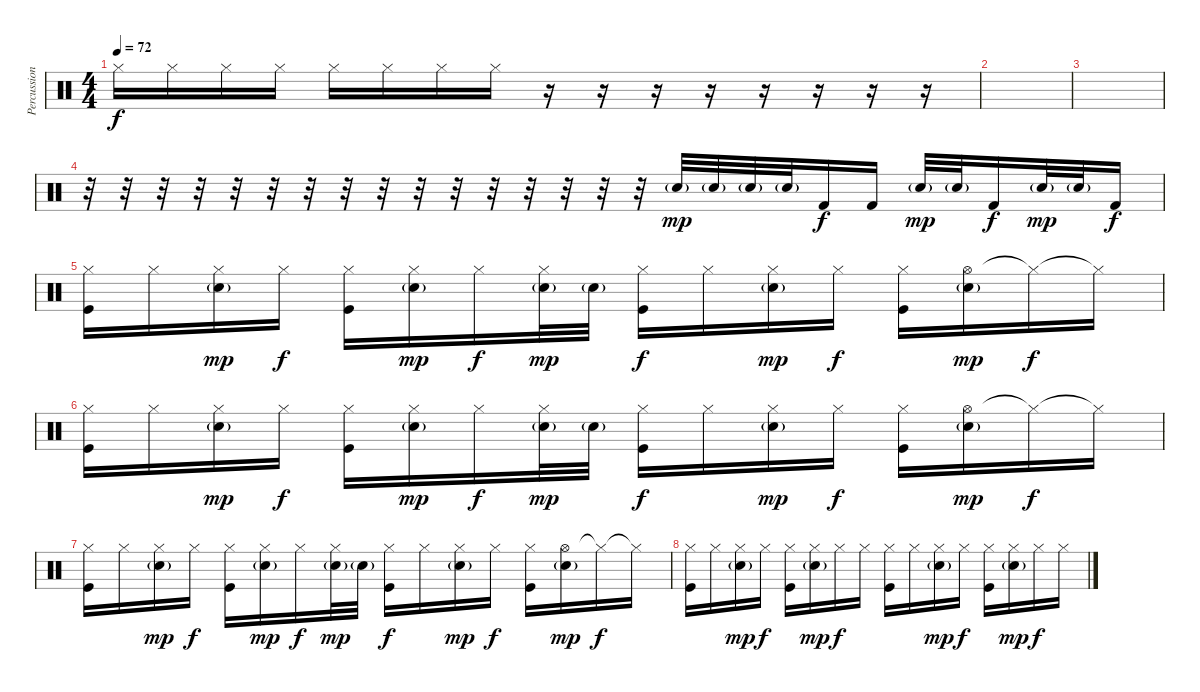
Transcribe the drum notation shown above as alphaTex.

\track ("Percussion" "Percussion") {instrument percussion}
\staff {score}
\articulation defaults
\ts (4 4)
\section ("" "")
\tempo 72
\clef neutral
\ks c "Hi-Hat (closed)".16{dy f volume 0} "Hi-Hat (closed)".16 "Hi-Hat (closed)".16 "Hi-Hat (closed)".16 "Hi-Hat (closed)".16 "Hi-Hat (closed)".16 "Hi-Hat (closed)".16 "Hi-Hat (closed)".16
r.16 r.16 r.16 r.16 r.16 r.16 r.16 r.16 |
|
|
r.32 r.32 r.32 r.32 r.32 r.32 r.32 r.32 r.32 r.32 r.32 r.32 r.32 r.32 r.32 r.32 "Snare (hit) 2"{g}.32{dy mp} "Snare (hit) 2"{g}.32 "Snare (hit) 2"{g}.32 "Snare (hit) 2"{g}.32 "Kick (hit) 2".16{dy f} "Kick (hit) 2".16 "Snare (hit) 2"{g}.32{dy mp} "Snare (hit) 2"{g}.32 "Kick (hit) 2".16{dy f} "Snare (hit) 2"{g}.32{dy mp} "Snare (hit) 2"{g}.32 "Kick (hit) 2".16{dy f} |
("Hi-Hat (closed)" "Kick (hit)").16 "Hi-Hat (closed)".16 ("Hi-Hat (closed)" "Electric Snare (hit)"{g}).16{dy mp} "Hi-Hat (closed)".16{dy f} ("Hi-Hat (closed)" "Kick (hit)").16 ("Hi-Hat (closed)" "Electric Snare (hit)"{g}).16{dy mp} "Hi-Hat (closed)".16{dy f} ("Hi-Hat (closed)" "Electric Snare (hit)"{g}).32{dy mp} "Electric Snare (hit)"{g}.32 ("Hi-Hat (closed)" "Kick (hit)").16{dy f} "Hi-Hat (closed)".16 ("Hi-Hat (closed)" "Electric Snare (hit)"{g}).16{dy mp} "Hi-Hat (closed)".16{dy f} ("Hi-Hat (closed)" "Kick (hit)").16 ("Hi-Hat (open)" "Electric Snare (hit)"{g}).16{dy mp} "Hi-Hat (closed)"{t}.16{dy f} "Hi-Hat (closed)"{t}.16 |
("Hi-Hat (closed)" "Kick (hit)").16 "Hi-Hat (closed)".16 ("Hi-Hat (closed)" "Electric Snare (hit)"{g}).16{dy mp} "Hi-Hat (closed)".16{dy f} ("Hi-Hat (closed)" "Kick (hit)").16 ("Hi-Hat (closed)" "Electric Snare (hit)"{g}).16{dy mp} "Hi-Hat (closed)".16{dy f} ("Hi-Hat (closed)" "Electric Snare (hit)"{g}).32{dy mp} "Electric Snare (hit)"{g}.32 ("Hi-Hat (closed)" "Kick (hit)").16{dy f} "Hi-Hat (closed)".16 ("Hi-Hat (closed)" "Electric Snare (hit)"{g}).16{dy mp} "Hi-Hat (closed)".16{dy f} ("Hi-Hat (closed)" "Kick (hit)").16 ("Hi-Hat (open)" "Electric Snare (hit)"{g}).16{dy mp} "Hi-Hat (closed)"{t}.16{dy f} "Hi-Hat (closed)"{t}.16 |
("Hi-Hat (closed)" "Kick (hit)").16 "Hi-Hat (closed)".16 ("Hi-Hat (closed)" "Electric Snare (hit)"{g}).16{dy mp} "Hi-Hat (closed)".16{dy f} ("Hi-Hat (closed)" "Kick (hit)").16 ("Hi-Hat (closed)" "Electric Snare (hit)"{g}).16{dy mp} "Hi-Hat (closed)".16{dy f} ("Hi-Hat (closed)" "Electric Snare (hit)"{g}).32{dy mp} "Electric Snare (hit)"{g}.32 ("Hi-Hat (closed)" "Kick (hit)").16{dy f} "Hi-Hat (closed)".16 ("Hi-Hat (closed)" "Electric Snare (hit)"{g}).16{dy mp} "Hi-Hat (closed)".16{dy f} ("Hi-Hat (closed)" "Kick (hit)").16 ("Hi-Hat (open)" "Electric Snare (hit)"{g}).16{dy mp} "Hi-Hat (closed)"{t}.16{dy f} "Hi-Hat (closed)"{t}.16 |
("Hi-Hat (closed)" "Kick (hit)").16 "Hi-Hat (closed)".16 ("Hi-Hat (closed)" "Electric Snare (hit)"{g}).16{dy mp} "Hi-Hat (closed)".16{dy f} ("Hi-Hat (closed)" "Kick (hit)").16 ("Hi-Hat (closed)" "Electric Snare (hit)"{g}).16{dy mp} "Hi-Hat (closed)".16{dy f} "Hi-Hat (closed)".16 ("Hi-Hat (closed)" "Kick (hit)").16 "Hi-Hat (closed)".16 ("Hi-Hat (closed)" "Electric Snare (hit)"{g}).16{dy mp} "Hi-Hat (closed)".16{dy f} ("Hi-Hat (closed)" "Kick (hit)").16 ("Hi-Hat (closed)" "Electric Snare (hit)"{g}).16{dy mp} "Hi-Hat (closed)".16{dy f} "Hi-Hat (closed)".16
